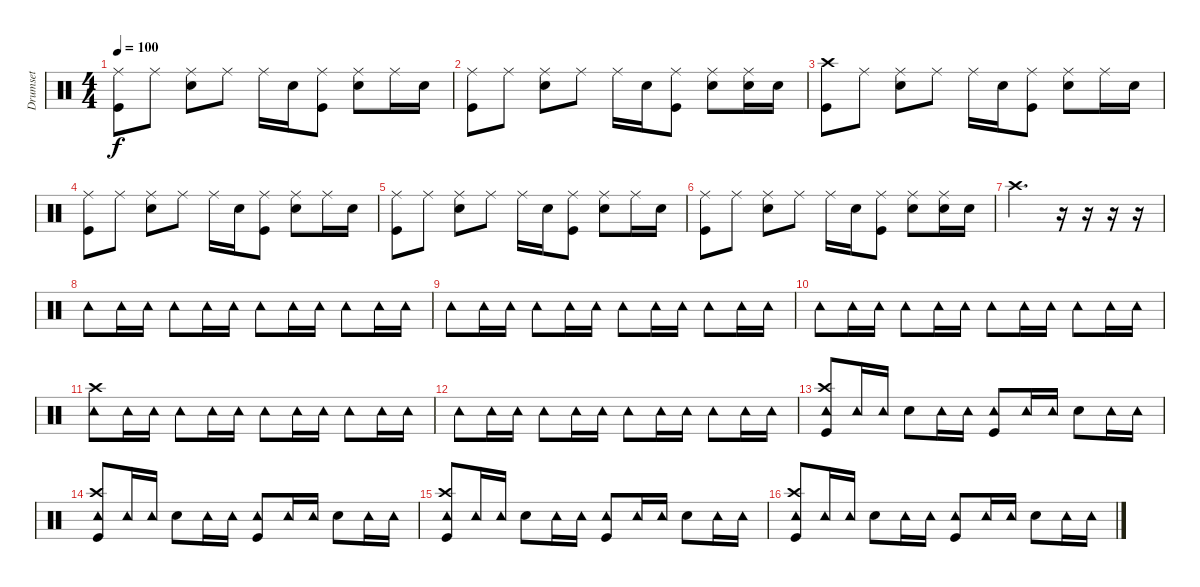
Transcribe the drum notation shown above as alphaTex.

\track ("Drumset" "Drumset") {instrument percussion}
\staff {score}
\articulation defaults
\ts (4 4)
\tempo 100
\clef neutral
\ks c
("Ride (middle)" "Kick (hit)").8{dy f} "Ride (middle)".8 ("Ride (middle)" "Snare (hit) 2").8 "Ride (middle)".8 "Ride (middle)".16 "Snare (hit) 2".16 ("Ride (middle)" "Kick (hit)").8 ("Ride (middle)" "Snare (hit) 2").8 "Ride (middle)".16 "Snare (hit) 2".16 |
("Ride (middle)" "Kick (hit)").8 "Ride (middle)".8 ("Snare (hit) 2" "Ride (middle)").8 "Ride (middle)".8 "Ride (middle)".16 "Snare (hit) 2".16 ("Ride (middle)" "Kick (hit)").8 ("Ride (middle)" "Snare (hit) 2").8 ("Ride (middle)" "Snare (hit) 2").16 "Snare (hit) 2".16 |
("Crash high (hit)" "Kick (hit)").8 "Ride (middle)".8 ("Ride (middle)" "Snare (hit) 2").8 "Ride (middle)".8 "Ride (middle)".16 "Snare (hit) 2".16 ("Ride (middle)" "Kick (hit)").8 ("Ride (middle)" "Snare (hit) 2").8 "Ride (middle)".16 "Snare (hit) 2".16 |
("Ride (middle)" "Kick (hit)").8 "Ride (middle)".8 ("Snare (hit) 2" "Ride (middle)").8 "Ride (middle)".8 "Ride (middle)".16 "Snare (hit) 2".16 ("Ride (middle)" "Kick (hit)").8 ("Ride (middle)" "Snare (hit) 2").8 "Ride (middle)".16 "Snare (hit) 2".16 |
("Ride (middle)" "Kick (hit)").8 "Ride (middle)".8 ("Ride (middle)" "Snare (hit) 2").8 "Ride (middle)".8 "Ride (middle)".16 "Snare (hit) 2".16 ("Ride (middle)" "Kick (hit)").8 ("Ride (middle)" "Snare (hit) 2").8 "Ride (middle)".16 "Snare (hit) 2".16 |
("Ride (middle)" "Kick (hit)").8 "Ride (middle)".8 ("Snare (hit) 2" "Ride (middle)").8 "Ride (middle)".8 "Ride (middle)".16 "Snare (hit) 2".16 ("Ride (middle)" "Kick (hit)").8 ("Ride (middle)" "Snare (hit) 2").8 ("Ride (middle)" "Snare (hit) 2").16 "Snare (hit) 2".16 |
"Crash high (hit)".2{d} r.16 r.16 r.16 r.16 |
"Tambourine (hit)".8 "Tambourine (hit)".16 "Tambourine (hit)".16 "Tambourine (hit)".8 "Tambourine (hit)".16 "Tambourine (hit)".16 "Tambourine (hit)".8 "Tambourine (hit)".16 "Tambourine (hit)".16 "Tambourine (hit)".8 "Tambourine (hit)".16 "Tambourine (hit)".16 |
"Tambourine (hit)".8 "Tambourine (hit)".16 "Tambourine (hit)".16 "Tambourine (hit)".8 "Tambourine (hit)".16 "Tambourine (hit)".16 "Tambourine (hit)".8 "Tambourine (hit)".16 "Tambourine (hit)".16 "Tambourine (hit)".8 "Tambourine (hit)".16 "Tambourine (hit)".16 |
"Tambourine (hit)".8 "Tambourine (hit)".16 "Tambourine (hit)".16 "Tambourine (hit)".8 "Tambourine (hit)".16 "Tambourine (hit)".16 "Tambourine (hit)".8 "Tambourine (hit)".16 "Tambourine (hit)".16 "Tambourine (hit)".8 "Tambourine (hit)".16 "Tambourine (hit)".16 |
("Crash high (hit)" "Tambourine (hit)").8 "Tambourine (hit)".16 "Tambourine (hit)".16 "Tambourine (hit)".8 "Tambourine (hit)".16 "Tambourine (hit)".16 "Tambourine (hit)".8 "Tambourine (hit)".16 "Tambourine (hit)".16 "Tambourine (hit)".8 "Tambourine (hit)".16 "Tambourine (hit)".16 |
"Tambourine (hit)".8 "Tambourine (hit)".16 "Tambourine (hit)".16 "Tambourine (hit)".8 "Tambourine (hit)".16 "Tambourine (hit)".16 "Tambourine (hit)".8 "Tambourine (hit)".16 "Tambourine (hit)".16 "Tambourine (hit)".8 "Tambourine (hit)".16 "Tambourine (hit)".16 |
("Crash high (hit)" "Tambourine (hit)" "Kick (hit)").8 "Tambourine (hit)".16 "Tambourine (hit)".16 "Snare (hit) 2".8 "Tambourine (hit)".16 "Tambourine (hit)".16 ("Kick (hit)" "Tambourine (hit)").8 "Tambourine (hit)".16 "Tambourine (hit)".16 "Snare (hit) 2".8 "Tambourine (hit)".16 "Tambourine (hit)".16 |
("Crash high (hit)" "Tambourine (hit)" "Kick (hit)").8 "Tambourine (hit)".16 "Tambourine (hit)".16 "Snare (hit) 2".8 "Tambourine (hit)".16 "Tambourine (hit)".16 ("Kick (hit)" "Tambourine (hit)").8 "Tambourine (hit)".16 "Tambourine (hit)".16 "Snare (hit) 2".8 "Tambourine (hit)".16 "Tambourine (hit)".16 |
("Crash high (hit)" "Tambourine (hit)" "Kick (hit)").8 "Tambourine (hit)".16 "Tambourine (hit)".16 "Snare (hit) 2".8 "Tambourine (hit)".16 "Tambourine (hit)".16 ("Kick (hit)" "Tambourine (hit)").8 "Tambourine (hit)".16 "Tambourine (hit)".16 "Snare (hit) 2".8 "Tambourine (hit)".16 "Tambourine (hit)".16 |
("Crash high (hit)" "Tambourine (hit)" "Kick (hit)").8 "Tambourine (hit)".16 "Tambourine (hit)".16 "Snare (hit) 2".8 "Tambourine (hit)".16 "Tambourine (hit)".16 ("Kick (hit)" "Tambourine (hit)").8 "Tambourine (hit)".16 "Tambourine (hit)".16 "Snare (hit) 2".8 "Tambourine (hit)".16 "Tambourine (hit)".16
